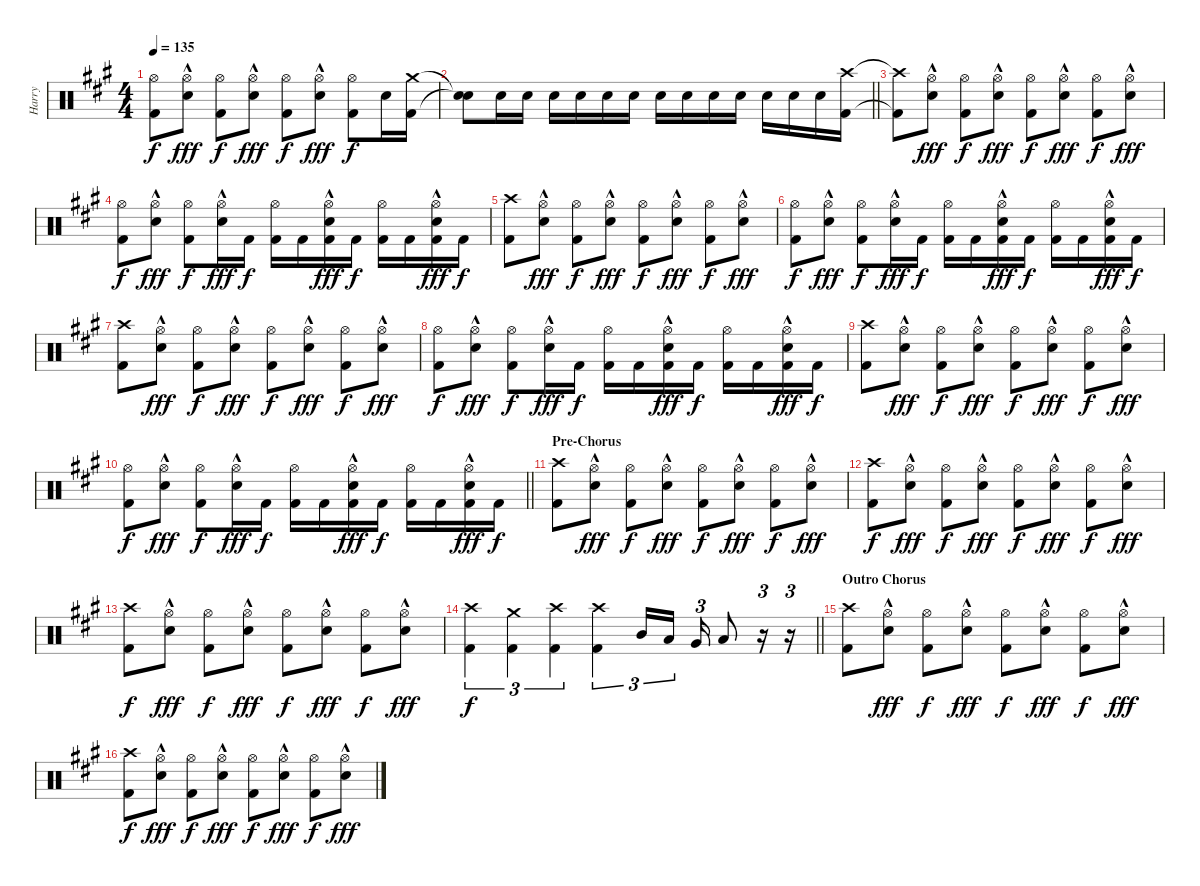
\track ("Harry" "Harry") {instrument percussion}
\staff {score}
\articulation defaults
\ts (4 4)
\tempo 135
\clef neutral
\ks a
("Hi-Hat (open)" "Kick (hit) 2").8{dy f} ("Hi-Hat (open)"{hac} "Snare (hit) 2"{hac}).8{dy fff} ("Hi-Hat (open)" "Kick (hit) 2").8{dy f} ("Hi-Hat (open)"{hac} "Snare (hit) 2"{hac}).8{dy fff} ("Hi-Hat (open)" "Kick (hit) 2").8{dy f} ("Hi-Hat (open)"{hac} "Snare (hit) 2"{hac}).8{dy fff} ("Hi-Hat (open)" "Kick (hit) 2").8{dy f} "Snare (hit) 2".16 ("Crash medium (hit)" "Kick (hit) 2").16 |
\barLineRight lightlight
("Snare (hit)"{t} "Snare (hit)"{t}).8 "Snare (hit) 2".16 "Snare (hit) 2".16 "Snare (hit) 2".16 "Snare (hit) 2".16 "Snare (hit) 2".16 "Snare (hit) 2".16 "Snare (hit) 2".16 "Snare (hit) 2".16 "Snare (hit) 2".16 "Snare (hit) 2".16 "Snare (hit) 2".16 "Snare (hit) 2".16 "Snare (hit) 2".16 ("Crash high (hit)" "Kick (hit) 2").16 |
("Crash high (hit)"{t} "Kick (hit) 2"{t}).8 ("Hi-Hat (open)"{hac} "Snare (hit) 2"{hac}).8{dy fff} ("Hi-Hat (open)" "Kick (hit) 2").8{dy f} ("Hi-Hat (open)"{hac} "Snare (hit) 2"{hac}).8{dy fff} ("Hi-Hat (open)" "Kick (hit) 2").8{dy f} ("Hi-Hat (open)"{hac} "Snare (hit) 2"{hac}).8{dy fff} ("Hi-Hat (open)" "Kick (hit) 2").8{dy f} ("Hi-Hat (open)"{hac} "Snare (hit) 2"{hac}).8{dy fff} |
("Hi-Hat (open)" "Kick (hit) 2").8{dy f} ("Hi-Hat (open)"{hac} "Snare (hit) 2"{hac}).8{dy fff} ("Hi-Hat (open)" "Kick (hit) 2").8{dy f} ("Hi-Hat (open)"{hac} "Snare (hit) 2"{hac}).16{dy fff} "Kick (hit) 2".16{dy f} ("Hi-Hat (open)" "Kick (hit) 2").16 "Kick (hit) 2".16 ("Snare (hit) 2"{hac} "Hi-Hat (open)"{hac} "Kick (hit) 2"{hac}).16{dy fff} "Kick (hit) 2".16{dy f} ("Hi-Hat (open)" "Kick (hit) 2").16 "Kick (hit) 2".16 ("Snare (hit) 2"{hac} "Hi-Hat (open)"{hac} "Kick (hit) 2"{hac}).16{dy fff} "Kick (hit) 2".16{dy f} |
("Crash high (hit)" "Kick (hit) 2").8 ("Hi-Hat (open)"{hac} "Snare (hit) 2"{hac}).8{dy fff} ("Hi-Hat (open)" "Kick (hit) 2").8{dy f} ("Hi-Hat (open)"{hac} "Snare (hit) 2"{hac}).8{dy fff} ("Hi-Hat (open)" "Kick (hit) 2").8{dy f} ("Hi-Hat (open)"{hac} "Snare (hit) 2"{hac}).8{dy fff} ("Hi-Hat (open)" "Kick (hit) 2").8{dy f} ("Hi-Hat (open)"{hac} "Snare (hit) 2"{hac}).8{dy fff} |
("Hi-Hat (open)" "Kick (hit) 2").8{dy f} ("Hi-Hat (open)"{hac} "Snare (hit) 2"{hac}).8{dy fff} ("Hi-Hat (open)" "Kick (hit) 2").8{dy f} ("Hi-Hat (open)"{hac} "Snare (hit) 2"{hac}).16{dy fff} "Kick (hit) 2".16{dy f} ("Hi-Hat (open)" "Kick (hit) 2").16 "Kick (hit) 2".16 ("Snare (hit) 2"{hac} "Hi-Hat (open)"{hac} "Kick (hit) 2"{hac}).16{dy fff} "Kick (hit) 2".16{dy f} ("Hi-Hat (open)" "Kick (hit) 2").16 "Kick (hit) 2".16 ("Snare (hit) 2"{hac} "Hi-Hat (open)"{hac} "Kick (hit) 2"{hac}).16{dy fff} "Kick (hit) 2".16{dy f} |
("Crash high (hit)" "Kick (hit) 2").8 ("Hi-Hat (open)"{hac} "Snare (hit) 2"{hac}).8{dy fff} ("Hi-Hat (open)" "Kick (hit) 2").8{dy f} ("Hi-Hat (open)"{hac} "Snare (hit) 2"{hac}).8{dy fff} ("Hi-Hat (open)" "Kick (hit) 2").8{dy f} ("Hi-Hat (open)"{hac} "Snare (hit) 2"{hac}).8{dy fff} ("Hi-Hat (open)" "Kick (hit) 2").8{dy f} ("Hi-Hat (open)"{hac} "Snare (hit) 2"{hac}).8{dy fff} |
("Hi-Hat (open)" "Kick (hit) 2").8{dy f} ("Hi-Hat (open)"{hac} "Snare (hit) 2"{hac}).8{dy fff} ("Hi-Hat (open)" "Kick (hit) 2").8{dy f} ("Hi-Hat (open)"{hac} "Snare (hit) 2"{hac}).16{dy fff} "Kick (hit) 2".16{dy f} ("Hi-Hat (open)" "Kick (hit) 2").16 "Kick (hit) 2".16 ("Snare (hit) 2"{hac} "Hi-Hat (open)"{hac} "Kick (hit) 2"{hac}).16{dy fff} "Kick (hit) 2".16{dy f} ("Hi-Hat (open)" "Kick (hit) 2").16 "Kick (hit) 2".16 ("Snare (hit) 2"{hac} "Hi-Hat (open)"{hac} "Kick (hit) 2"{hac}).16{dy fff} "Kick (hit) 2".16{dy f} |
("Crash high (hit)" "Kick (hit) 2").8 ("Hi-Hat (open)"{hac} "Snare (hit) 2"{hac}).8{dy fff} ("Hi-Hat (open)" "Kick (hit) 2").8{dy f} ("Hi-Hat (open)"{hac} "Snare (hit) 2"{hac}).8{dy fff} ("Hi-Hat (open)" "Kick (hit) 2").8{dy f} ("Hi-Hat (open)"{hac} "Snare (hit) 2"{hac}).8{dy fff} ("Hi-Hat (open)" "Kick (hit) 2").8{dy f} ("Hi-Hat (open)"{hac} "Snare (hit) 2"{hac}).8{dy fff} |
\barLineRight lightlight
("Hi-Hat (open)" "Kick (hit) 2").8{dy f} ("Hi-Hat (open)"{hac} "Snare (hit) 2"{hac}).8{dy fff} ("Hi-Hat (open)" "Kick (hit) 2").8{dy f} ("Hi-Hat (open)"{hac} "Snare (hit) 2"{hac}).16{dy fff} "Kick (hit) 2".16{dy f} ("Hi-Hat (open)" "Kick (hit) 2").16 "Kick (hit) 2".16 ("Snare (hit) 2"{hac} "Hi-Hat (open)"{hac} "Kick (hit) 2"{hac}).16{dy fff} "Kick (hit) 2".16{dy f} ("Hi-Hat (open)" "Kick (hit) 2").16 "Kick (hit) 2".16 ("Snare (hit) 2"{hac} "Hi-Hat (open)"{hac} "Kick (hit) 2"{hac}).16{dy fff} "Kick (hit) 2".16{dy f} |
\section ("" "Pre-Chorus")
("Crash high (hit)" "Kick (hit) 2").8 ("Hi-Hat (open)"{hac} "Snare (hit) 2"{hac}).8{dy fff} ("Hi-Hat (open)" "Kick (hit) 2").8{dy f} ("Hi-Hat (open)"{hac} "Snare (hit) 2"{hac}).8{dy fff} ("Hi-Hat (open)" "Kick (hit) 2").8{dy f} ("Hi-Hat (open)"{hac} "Snare (hit) 2"{hac}).8{dy fff} ("Hi-Hat (open)" "Kick (hit) 2").8{dy f} ("Hi-Hat (open)"{hac} "Snare (hit) 2"{hac}).8{dy fff} |
("Crash high (hit)" "Kick (hit) 2").8{dy f} ("Hi-Hat (open)"{hac} "Snare (hit) 2"{hac}).8{dy fff} ("Hi-Hat (open)" "Kick (hit) 2").8{dy f} ("Hi-Hat (open)"{hac} "Snare (hit) 2"{hac}).8{dy fff} ("Hi-Hat (open)" "Kick (hit) 2").8{dy f} ("Hi-Hat (open)"{hac} "Snare (hit) 2"{hac}).8{dy fff} ("Hi-Hat (open)" "Kick (hit) 2").8{dy f} ("Hi-Hat (open)"{hac} "Snare (hit) 2"{hac}).8{dy fff} |
("Crash high (hit)" "Kick (hit) 2").8{dy f} ("Hi-Hat (open)"{hac} "Snare (hit) 2"{hac}).8{dy fff} ("Hi-Hat (open)" "Kick (hit) 2").8{dy f} ("Hi-Hat (open)"{hac} "Snare (hit) 2"{hac}).8{dy fff} ("Hi-Hat (open)" "Kick (hit) 2").8{dy f} ("Hi-Hat (open)"{hac} "Snare (hit) 2"{hac}).8{dy fff} ("Hi-Hat (open)" "Kick (hit) 2").8{dy f} ("Hi-Hat (open)"{hac} "Snare (hit) 2"{hac}).8{dy fff} |
\barLineRight lightlight
("Crash high (hit)" "Kick (hit) 2").4{tu (3 2) dy f} ("Crash medium (hit)" "Kick (hit) 2").4{tu (3 2)} ("Crash high (hit)" "Kick (hit) 2").4{tu (3 2)} ("Crash high (hit)" "Kick (hit) 2").4{tu (3 2)} "Mid Tom (hit)".16{tu (3 2)} "Low Tom (hit)".16{tu (3 2)} "Very Low Tom (hit)".16{tu (3 2)} "Low Floor Tom (hit)".8 r.16{tu (3 2)} r.16{tu (3 2)} |
\section ("" "Outro Chorus")
("Crash high (hit)" "Kick (hit) 2").8 ("Hi-Hat (open)"{hac} "Snare (hit) 2"{hac}).8{dy fff} ("Hi-Hat (open)" "Kick (hit) 2").8{dy f} ("Hi-Hat (open)"{hac} "Snare (hit) 2"{hac}).8{dy fff} ("Hi-Hat (open)" "Kick (hit) 2").8{dy f} ("Hi-Hat (open)"{hac} "Snare (hit) 2"{hac}).8{dy fff} ("Hi-Hat (open)" "Kick (hit) 2").8{dy f} ("Hi-Hat (open)"{hac} "Snare (hit) 2"{hac}).8{dy fff} |
("Crash high (hit)" "Kick (hit) 2").8{dy f} ("Hi-Hat (open)"{hac} "Snare (hit) 2"{hac}).8{dy fff} ("Hi-Hat (open)" "Kick (hit) 2").8{dy f} ("Hi-Hat (open)"{hac} "Snare (hit) 2"{hac}).8{dy fff} ("Hi-Hat (open)" "Kick (hit) 2").8{dy f} ("Hi-Hat (open)"{hac} "Snare (hit) 2"{hac}).8{dy fff} ("Hi-Hat (open)" "Kick (hit) 2").8{dy f} ("Hi-Hat (open)"{hac} "Snare (hit) 2"{hac}).8{dy fff}
